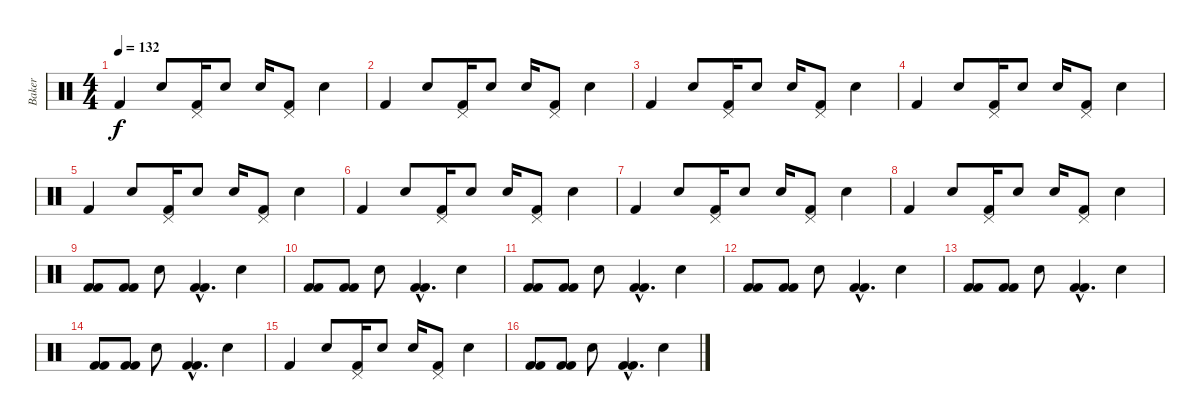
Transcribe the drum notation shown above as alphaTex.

\track ("Baker" "Baker") {instrument percussion}
\staff {score}
\articulation defaults
\ts (4 4)
\tempo 132
\clef neutral
\ks c "Kick (hit) 2".4{dy f} "Snare (hit) 2".8
("Pedal Hi-Hat (hit)" "Kick (hit) 2").16 "Snare (hit) 2".8 "Snare (hit) 2".16 ("Pedal Hi-Hat (hit)" "Kick (hit) 2").8 "Snare (hit) 2".4 |
"Kick (hit) 2".4 "Snare (hit) 2".8 ("Pedal Hi-Hat (hit)" "Kick (hit) 2").16 "Snare (hit) 2".8 "Snare (hit) 2".16 ("Pedal Hi-Hat (hit)" "Kick (hit) 2").8 "Snare (hit) 2".4 |
"Kick (hit) 2".4 "Snare (hit) 2".8 ("Pedal Hi-Hat (hit)" "Kick (hit) 2").16 "Snare (hit) 2".8 "Snare (hit) 2".16 ("Pedal Hi-Hat (hit)" "Kick (hit) 2").8 "Snare (hit) 2".4 |
"Kick (hit) 2".4 "Snare (hit) 2".8 ("Pedal Hi-Hat (hit)" "Kick (hit) 2").16 "Snare (hit) 2".8 "Snare (hit) 2".16 ("Pedal Hi-Hat (hit)" "Kick (hit) 2").8 "Snare (hit) 2".4 |
"Kick (hit) 2".4 "Snare (hit) 2".8 ("Pedal Hi-Hat (hit)" "Kick (hit) 2").16 "Snare (hit) 2".8 "Snare (hit) 2".16 ("Pedal Hi-Hat (hit)" "Kick (hit) 2").8 "Snare (hit) 2".4 |
"Kick (hit) 2".4 "Snare (hit) 2".8 ("Pedal Hi-Hat (hit)" "Kick (hit) 2").16 "Snare (hit) 2".8 "Snare (hit) 2".16 ("Pedal Hi-Hat (hit)" "Kick (hit) 2").8 "Snare (hit) 2".4 |
"Kick (hit) 2".4 "Snare (hit) 2".8 ("Pedal Hi-Hat (hit)" "Kick (hit) 2").16 "Snare (hit) 2".8 "Snare (hit) 2".16 ("Pedal Hi-Hat (hit)" "Kick (hit) 2").8 "Snare (hit) 2".4 |
"Kick (hit) 2".4 "Snare (hit) 2".8 ("Pedal Hi-Hat (hit)" "Kick (hit) 2").16 "Snare (hit) 2".8 "Snare (hit) 2".16 ("Pedal Hi-Hat (hit)" "Kick (hit) 2").8 "Snare (hit) 2".4 |
("Kick (hit) 2" "Kick (hit) 2").8 ("Kick (hit) 2" "Kick (hit) 2").8 "Snare (hit) 2".8 ("Kick (hit) 2"{hac} "Kick (hit) 2"{hac}).4{d} "Snare (hit) 2".4 |
("Kick (hit) 2" "Kick (hit) 2").8 ("Kick (hit) 2" "Kick (hit) 2").8 "Snare (hit) 2".8 ("Kick (hit) 2"{hac} "Kick (hit) 2"{hac}).4{d} "Snare (hit) 2".4 |
("Kick (hit) 2" "Kick (hit) 2").8 ("Kick (hit) 2" "Kick (hit) 2").8 "Snare (hit) 2".8 ("Kick (hit) 2"{hac} "Kick (hit) 2"{hac}).4{d} "Snare (hit) 2".4 |
("Kick (hit) 2" "Kick (hit) 2").8 ("Kick (hit) 2" "Kick (hit) 2").8 "Snare (hit) 2".8 ("Kick (hit) 2"{hac} "Kick (hit) 2"{hac}).4{d} "Snare (hit) 2".4 |
("Kick (hit) 2" "Kick (hit) 2").8 ("Kick (hit) 2" "Kick (hit) 2").8 "Snare (hit) 2".8 ("Kick (hit) 2"{hac} "Kick (hit) 2"{hac}).4{d} "Snare (hit) 2".4 |
("Kick (hit) 2" "Kick (hit) 2").8 ("Kick (hit) 2" "Kick (hit) 2").8 "Snare (hit) 2".8 ("Kick (hit) 2"{hac} "Kick (hit) 2"{hac}).4{d} "Snare (hit) 2".4 |
"Kick (hit) 2".4 "Snare (hit) 2".8 ("Pedal Hi-Hat (hit)" "Kick (hit) 2").16 "Snare (hit) 2".8 "Snare (hit) 2".16 ("Pedal Hi-Hat (hit)" "Kick (hit) 2").8 "Snare (hit) 2".4 |
("Kick (hit) 2" "Kick (hit) 2").8 ("Kick (hit) 2" "Kick (hit) 2").8 "Snare (hit) 2".8 ("Kick (hit) 2"{hac} "Kick (hit) 2"{hac}).4{d} "Snare (hit) 2".4
